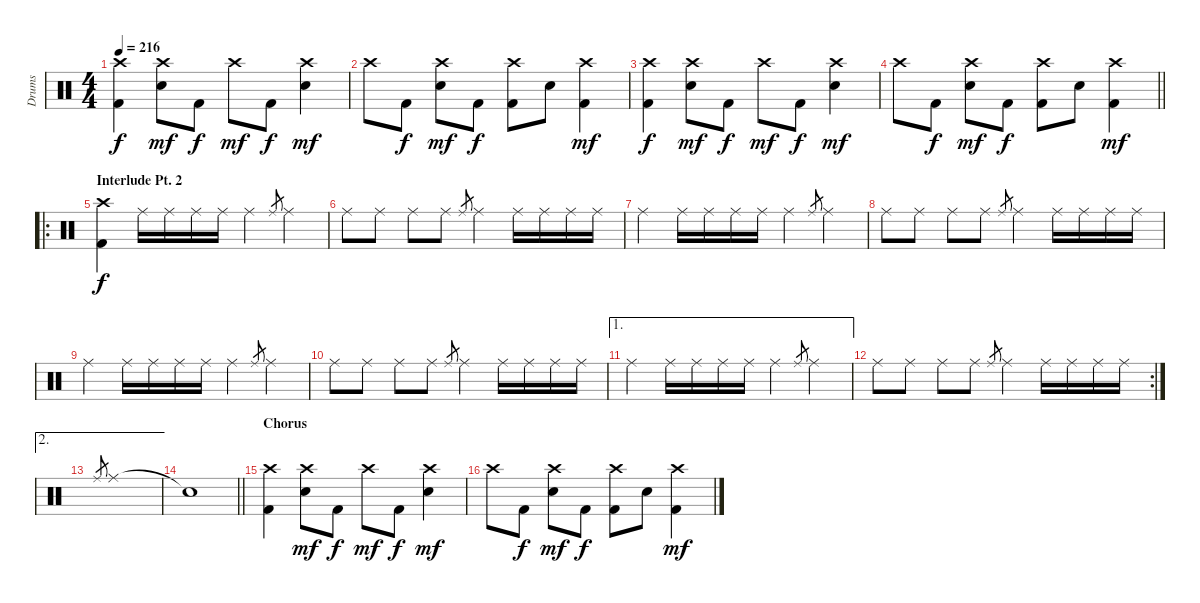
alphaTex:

\track ("Drums" "Drums") {instrument percussion}
\staff {score}
\articulation defaults
\ts (4 4)
\tempo 216
\clef neutral
\ks c
("Crash high (hit)" "Kick (hit) 2").4{dy f} ("Crash high (hit)" "Electric Snare (hit)").8{dy mf} "Kick (hit) 2".8{dy f} "Crash high (hit)".8{dy mf} "Kick (hit) 2".8{dy f} ("Crash high (hit)" "Electric Snare (hit)").4{dy mf} |
"Crash high (hit)".8 "Kick (hit) 2".8{dy f} ("Crash high (hit)" "Electric Snare (hit)").8{dy mf} "Kick (hit) 2".8{dy f} ("Crash high (hit)" "Kick (hit) 2").8 "Electric Snare (hit)".8 ("Crash high (hit)" "Kick (hit) 2").4{dy mf} |
("Crash high (hit)" "Kick (hit) 2").4{dy f} ("Crash high (hit)" "Electric Snare (hit)").8{dy mf} "Kick (hit) 2".8{dy f} "Crash high (hit)".8{dy mf} "Kick (hit) 2".8{dy f} ("Crash high (hit)" "Electric Snare (hit)").4{dy mf} |
\barLineRight lightlight "Crash high (hit)".8 "Kick (hit) 2".8{dy f}
("Crash high (hit)" "Electric Snare (hit)").8{dy mf} "Kick (hit) 2".8{dy f} ("Crash high (hit)" "Kick (hit) 2").8 "Electric Snare (hit)".8 ("Crash high (hit)" "Kick (hit) 2").4{dy mf} |
\ro
\section ("" "Interlude Pt. 2")
("Crash high (hit)" "Kick (hit) 2").4{dy f} "Ride (middle)".16 "Ride (middle)".16 "Ride (middle)".16 "Ride (middle)".16 "Ride (middle)".4 "Ride (middle)".8{gr} "Ride (middle)".4 |
"Ride (middle)".8 "Ride (middle)".8 "Ride (middle)".8 "Ride (middle)".8 "Ride (middle)".8{gr} "Ride (middle)".4 "Ride (middle)".16 "Ride (middle)".16 "Ride (middle)".16 "Ride (middle)".16 |
"Ride (middle)".4 "Ride (middle)".16 "Ride (middle)".16 "Ride (middle)".16 "Ride (middle)".16 "Ride (middle)".4 "Ride (middle)".8{gr} "Ride (middle)".4 |
"Ride (middle)".8 "Ride (middle)".8 "Ride (middle)".8 "Ride (middle)".8 "Ride (middle)".8{gr} "Ride (middle)".4 "Ride (middle)".16 "Ride (middle)".16 "Ride (middle)".16 "Ride (middle)".16 |
"Ride (middle)".4 "Ride (middle)".16 "Ride (middle)".16 "Ride (middle)".16 "Ride (middle)".16 "Ride (middle)".4 "Ride (middle)".8{gr} "Ride (middle)".4 |
"Ride (middle)".8 "Ride (middle)".8 "Ride (middle)".8 "Ride (middle)".8 "Ride (middle)".8{gr} "Ride (middle)".4 "Ride (middle)".16 "Ride (middle)".16 "Ride (middle)".16 "Ride (middle)".16 |
\ae 1 "Ride (middle)".4 "Ride (middle)".16 "Ride (middle)".16 "Ride (middle)".16 "Ride (middle)".16 "Ride (middle)".4 "Ride (middle)".8{gr} "Ride (middle)".4
|
\rc 2 "Ride (middle)".8 "Ride (middle)".8 "Ride (middle)".8 "Ride (middle)".8 "Ride (middle)".8{gr} "Ride (middle)".4 "Ride (middle)".16 "Ride (middle)".16 "Ride (middle)".16 "Ride (middle)".16
|
\ae 2 "Ride (middle)".8{gr} "Ride (middle)".1
|
\barLineRight lightlight "Snare (hit)"{t}.1
|
\section ("" "Chorus")
("Crash high (hit)" "Kick (hit) 2").4 ("Crash high (hit)" "Electric Snare (hit)").8{dy mf} "Kick (hit) 2".8{dy f} "Crash high (hit)".8{dy mf} "Kick (hit) 2".8{dy f} ("Crash high (hit)" "Electric Snare (hit)").4{dy mf} |
"Crash high (hit)".8 "Kick (hit) 2".8{dy f} ("Crash high (hit)" "Electric Snare (hit)").8{dy mf} "Kick (hit) 2".8{dy f} ("Crash high (hit)" "Kick (hit) 2").8 "Electric Snare (hit)".8 ("Crash high (hit)" "Kick (hit) 2").4{dy mf}
